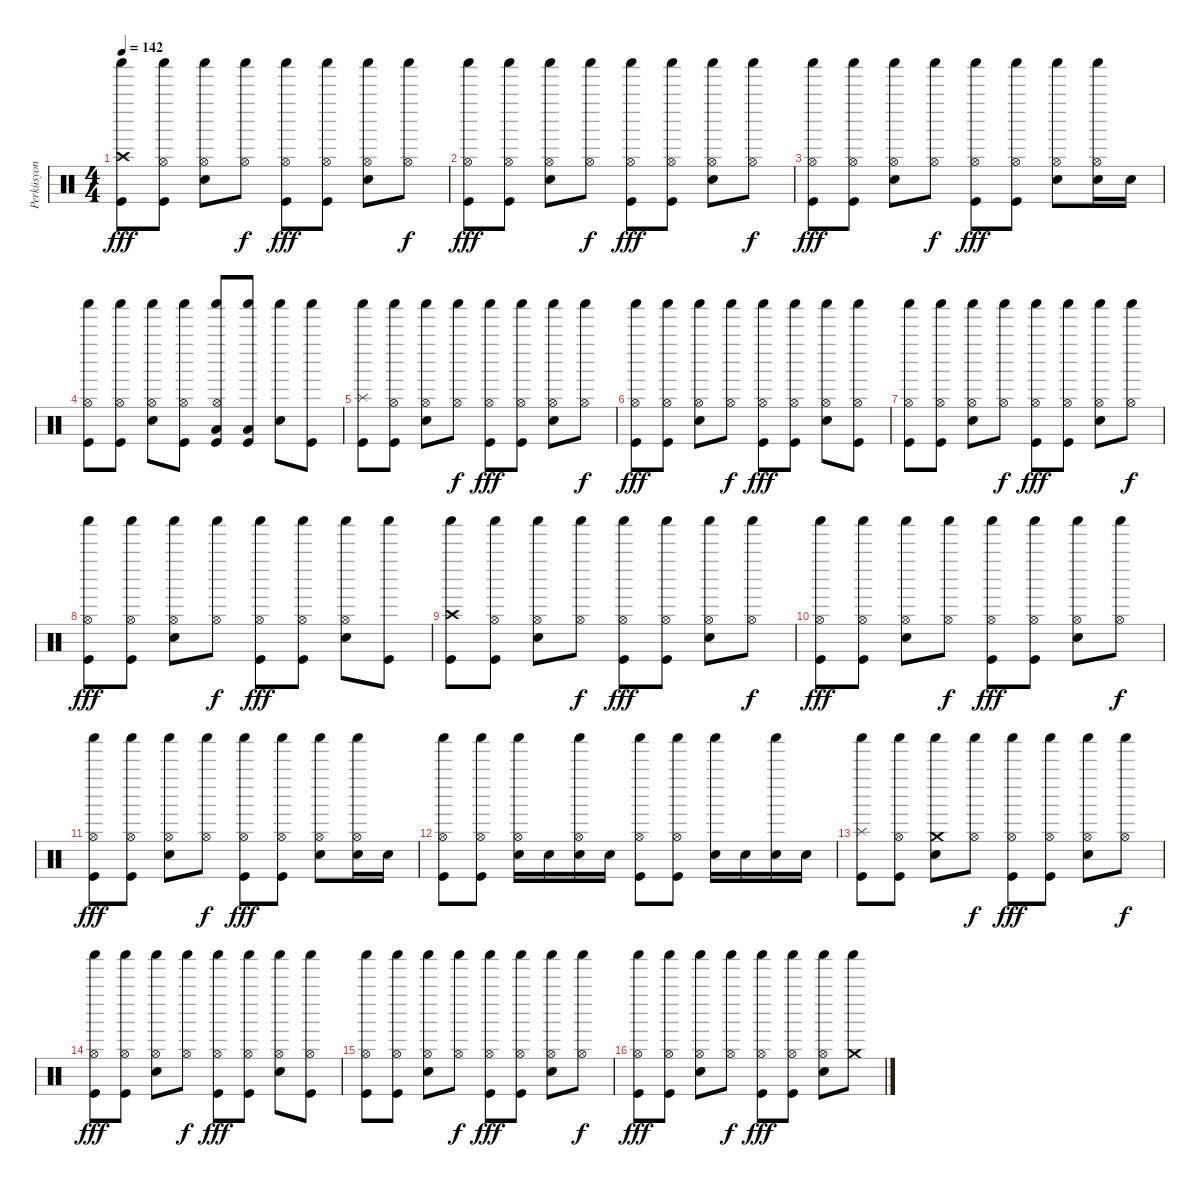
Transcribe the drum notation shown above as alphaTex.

\track ("Perküsyon" "Perküsyon") {instrument percussion}
\staff {score}
\articulation defaults
\ts (4 4)
\tempo 142
\clef neutral
\ks c
("Kick (hit)" "Crash high (hit)" "Shaker (hit)").8{dy fff} ("Kick (hit)" "Hi-Hat (open)" "Shaker (hit)").8 ("Snare (hit) 2" "Hi-Hat (open)" "Shaker (hit)").8 ("Hi-Hat (open)" "Shaker (hit)").8{dy f} ("Kick (hit)" "Hi-Hat (open)" "Shaker (hit)").8{dy fff} ("Kick (hit)" "Hi-Hat (open)" "Shaker (hit)").8 ("Snare (hit) 2" "Hi-Hat (open)" "Shaker (hit)").8 ("Hi-Hat (open)" "Shaker (hit)").8{dy f} |
("Kick (hit)" "Hi-Hat (open)" "Shaker (hit)").8{dy fff} ("Kick (hit)" "Hi-Hat (open)" "Shaker (hit)").8 ("Snare (hit) 2" "Hi-Hat (open)" "Shaker (hit)").8 ("Hi-Hat (open)" "Shaker (hit)").8{dy f} ("Kick (hit)" "Hi-Hat (open)" "Shaker (hit)").8{dy fff} ("Kick (hit)" "Hi-Hat (open)" "Shaker (hit)").8 ("Snare (hit) 2" "Hi-Hat (open)" "Shaker (hit)").8 ("Hi-Hat (open)" "Shaker (hit)").8{dy f} |
("Kick (hit)" "Hi-Hat (open)" "Shaker (hit)").8{dy fff} ("Kick (hit)" "Hi-Hat (open)" "Shaker (hit)").8 ("Snare (hit) 2" "Hi-Hat (open)" "Shaker (hit)").8 ("Hi-Hat (open)" "Shaker (hit)").8{dy f} ("Kick (hit)" "Hi-Hat (open)" "Shaker (hit)").8{dy fff} ("Kick (hit)" "Hi-Hat (open)" "Shaker (hit)").8 ("Snare (hit) 2" "Hi-Hat (open)" "Shaker (hit)").8 ("Snare (hit) 2" "Hi-Hat (open)" "Shaker (hit)").16 "Snare (hit) 2".16 |
("Kick (hit)" "Hi-Hat (open)" "Shaker (hit)").8 ("Kick (hit)" "Hi-Hat (open)" "Shaker (hit)").8 ("Snare (hit) 2" "Hi-Hat (open)" "Shaker (hit)").8 ("Kick (hit)" "Hi-Hat (open)" "Shaker (hit)").8 ("Kick (hit)" "Hi-Hat (open)" "Low Floor Tom (hit)" "Shaker (hit)").8 ("Kick (hit)" "Low Floor Tom (hit)" "Shaker (hit)").8 ("Snare (hit) 2" "Shaker (hit)").8 ("Kick (hit)" "Shaker (hit)").8 |
("Kick (hit)" "Splash (hit)" "Shaker (hit)").8 ("Kick (hit)" "Hi-Hat (open)" "Shaker (hit)").8 ("Snare (hit) 2" "Hi-Hat (open)" "Shaker (hit)").8 ("Hi-Hat (open)" "Shaker (hit)").8{dy f} ("Kick (hit)" "Hi-Hat (open)" "Shaker (hit)").8{dy fff} ("Kick (hit)" "Hi-Hat (open)" "Shaker (hit)").8 ("Snare (hit) 2" "Hi-Hat (open)" "Shaker (hit)").8 ("Hi-Hat (open)" "Shaker (hit)").8{dy f} |
("Kick (hit)" "Hi-Hat (open)" "Shaker (hit)").8{dy fff} ("Kick (hit)" "Hi-Hat (open)" "Shaker (hit)").8 ("Snare (hit) 2" "Hi-Hat (open)" "Shaker (hit)").8 ("Hi-Hat (open)" "Shaker (hit)").8{dy f} ("Kick (hit)" "Hi-Hat (open)" "Shaker (hit)").8{dy fff} ("Kick (hit)" "Hi-Hat (open)" "Shaker (hit)").8 ("Snare (hit) 2" "Hi-Hat (open)" "Shaker (hit)").8 ("Kick (hit)" "Hi-Hat (open)" "Shaker (hit)").8 |
("Kick (hit)" "Hi-Hat (open)" "Shaker (hit)").8 ("Kick (hit)" "Hi-Hat (open)" "Shaker (hit)").8 ("Snare (hit) 2" "Hi-Hat (open)" "Shaker (hit)").8 ("Hi-Hat (open)" "Shaker (hit)").8{dy f} ("Kick (hit)" "Hi-Hat (open)" "Shaker (hit)").8{dy fff} ("Kick (hit)" "Hi-Hat (open)" "Shaker (hit)").8 ("Snare (hit) 2" "Hi-Hat (open)" "Shaker (hit)").8 ("Hi-Hat (open)" "Shaker (hit)").8{dy f} |
("Kick (hit)" "Hi-Hat (open)" "Shaker (hit)").8{dy fff} ("Kick (hit)" "Hi-Hat (open)" "Shaker (hit)").8 ("Snare (hit) 2" "Hi-Hat (open)" "Shaker (hit)").8 ("Hi-Hat (open)" "Shaker (hit)").8{dy f} ("Kick (hit)" "Hi-Hat (open)" "Shaker (hit)").8{dy fff} ("Kick (hit)" "Hi-Hat (open)" "Shaker (hit)").8 ("Snare (hit) 2" "Hi-Hat (open)" "Shaker (hit)").8 ("Kick (hit)" "Shaker (hit)").8 |
("Kick (hit)" "Crash high (hit)" "Shaker (hit)").8 ("Kick (hit)" "Hi-Hat (open)" "Shaker (hit)").8 ("Snare (hit) 2" "Hi-Hat (open)" "Shaker (hit)").8 ("Hi-Hat (open)" "Shaker (hit)").8{dy f} ("Kick (hit)" "Hi-Hat (open)" "Shaker (hit)").8{dy fff} ("Kick (hit)" "Hi-Hat (open)" "Shaker (hit)").8 ("Snare (hit) 2" "Hi-Hat (open)" "Shaker (hit)").8 ("Hi-Hat (open)" "Shaker (hit)").8{dy f} |
("Kick (hit)" "Hi-Hat (open)" "Shaker (hit)").8{dy fff} ("Kick (hit)" "Hi-Hat (open)" "Shaker (hit)").8 ("Snare (hit) 2" "Hi-Hat (open)" "Shaker (hit)").8 ("Hi-Hat (open)" "Shaker (hit)").8{dy f} ("Kick (hit)" "Hi-Hat (open)" "Shaker (hit)").8{dy fff} ("Kick (hit)" "Hi-Hat (open)" "Shaker (hit)").8 ("Snare (hit) 2" "Hi-Hat (open)" "Shaker (hit)").8 ("Hi-Hat (open)" "Shaker (hit)").8{dy f} |
("Kick (hit)" "Hi-Hat (open)" "Shaker (hit)").8{dy fff} ("Kick (hit)" "Hi-Hat (open)" "Shaker (hit)").8 ("Snare (hit) 2" "Hi-Hat (open)" "Shaker (hit)").8 ("Hi-Hat (open)" "Shaker (hit)").8{dy f} ("Kick (hit)" "Hi-Hat (open)" "Shaker (hit)").8{dy fff} ("Kick (hit)" "Hi-Hat (open)" "Shaker (hit)").8 ("Snare (hit) 2" "Hi-Hat (open)" "Shaker (hit)").8 ("Snare (hit) 2" "Hi-Hat (open)" "Shaker (hit)").16 "Snare (hit) 2".16 |
("Kick (hit)" "Hi-Hat (open)" "Shaker (hit)").8 ("Kick (hit)" "Hi-Hat (open)" "Shaker (hit)").8 ("Snare (hit) 2" "Hi-Hat (open)" "Shaker (hit)").16 "Snare (hit) 2".16 ("Snare (hit) 2" "Hi-Hat (open)" "Shaker (hit)").16 "Snare (hit) 2".16 ("Kick (hit)" "Hi-Hat (open)" "Shaker (hit)").8 ("Kick (hit)" "Hi-Hat (open)" "Shaker (hit)").8 ("Snare (hit) 2" "Shaker (hit)").16 "Snare (hit) 2".16 ("Snare (hit) 2" "Shaker (hit)").16 "Snare (hit) 2".16 |
("Kick (hit)" "Splash (hit)" "Shaker (hit)").8 ("Kick (hit)" "Hi-Hat (open)" "Shaker (hit)").8 ("Snare (hit) 2" "Crash medium (hit)" "Shaker (hit)").8 ("Hi-Hat (open)" "Shaker (hit)").8{dy f} ("Kick (hit)" "Hi-Hat (open)" "Shaker (hit)").8{dy fff} ("Kick (hit)" "Hi-Hat (open)" "Shaker (hit)").8 ("Snare (hit) 2" "Hi-Hat (open)" "Shaker (hit)").8 ("Hi-Hat (open)" "Shaker (hit)").8{dy f} |
("Kick (hit)" "Hi-Hat (open)" "Shaker (hit)").8{dy fff} ("Kick (hit)" "Hi-Hat (open)" "Shaker (hit)").8 ("Snare (hit) 2" "Hi-Hat (open)" "Shaker (hit)").8 ("Hi-Hat (open)" "Shaker (hit)").8{dy f} ("Kick (hit)" "Hi-Hat (open)" "Shaker (hit)").8{dy fff} ("Kick (hit)" "Hi-Hat (open)" "Shaker (hit)").8 ("Snare (hit) 2" "Hi-Hat (open)" "Shaker (hit)").8 ("Kick (hit)" "Hi-Hat (open)" "Shaker (hit)").8 |
("Kick (hit)" "Hi-Hat (open)" "Shaker (hit)").8 ("Kick (hit)" "Hi-Hat (open)" "Shaker (hit)").8 ("Snare (hit) 2" "Hi-Hat (open)" "Shaker (hit)").8 ("Hi-Hat (open)" "Shaker (hit)").8{dy f} ("Kick (hit)" "Hi-Hat (open)" "Shaker (hit)").8{dy fff} ("Kick (hit)" "Hi-Hat (open)" "Shaker (hit)").8 ("Snare (hit) 2" "Hi-Hat (open)" "Shaker (hit)").8 ("Hi-Hat (open)" "Shaker (hit)").8{dy f} |
("Kick (hit)" "Hi-Hat (open)" "Shaker (hit)").8{dy fff} ("Kick (hit)" "Hi-Hat (open)" "Shaker (hit)").8 ("Snare (hit) 2" "Hi-Hat (open)" "Shaker (hit)").8 ("Hi-Hat (open)" "Shaker (hit)").8{dy f} ("Kick (hit)" "Hi-Hat (open)" "Shaker (hit)").8{dy fff} ("Kick (hit)" "Hi-Hat (open)" "Shaker (hit)").8 ("Snare (hit) 2" "Hi-Hat (open)" "Shaker (hit)").8 ("Crash medium (hit)" "Shaker (hit)").8
